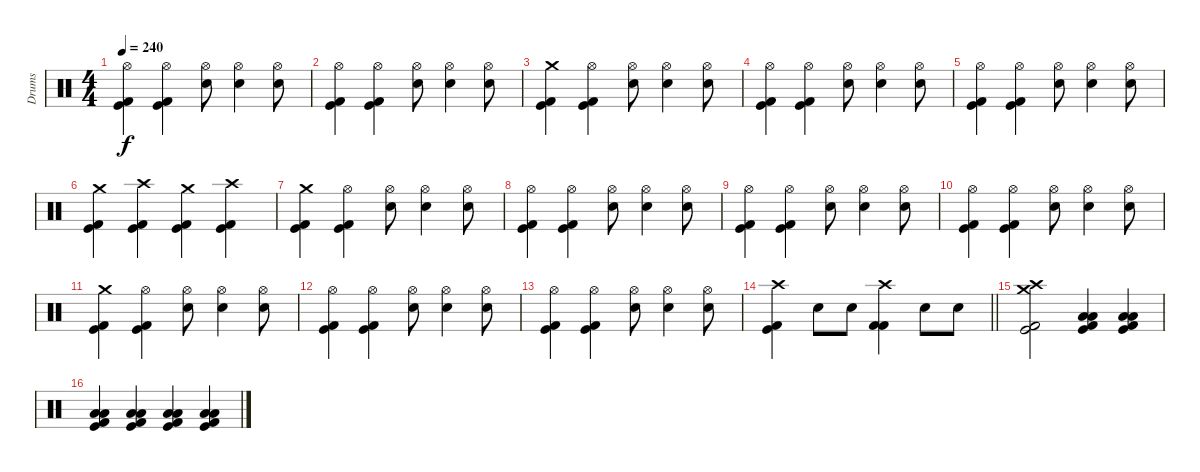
\track ("Drums" "Drums") {instrument percussion}
\staff {score}
\articulation defaults
\ts (4 4)
\tempo 240
\clef neutral
\ks c
("Hi-Hat (open)" "Kick (hit)" "Kick (hit) 2").4{dy f} ("Hi-Hat (open)" "Kick (hit)" "Kick (hit) 2").4 ("Hi-Hat (open)" "Electric Snare (hit)").8 ("Hi-Hat (open)" "Electric Snare (hit)").4 ("Hi-Hat (open)" "Electric Snare (hit)").8 |
("Hi-Hat (open)" "Kick (hit)" "Kick (hit) 2").4 ("Hi-Hat (open)" "Kick (hit)" "Kick (hit) 2").4 ("Hi-Hat (open)" "Electric Snare (hit)").8 ("Hi-Hat (open)" "Electric Snare (hit)").4 ("Hi-Hat (open)" "Electric Snare (hit)").8 |
("Crash medium (hit)" "Kick (hit)" "Kick (hit) 2").4 ("Hi-Hat (open)" "Kick (hit)" "Kick (hit) 2").4 ("Hi-Hat (open)" "Electric Snare (hit)").8 ("Hi-Hat (open)" "Electric Snare (hit)").4 ("Hi-Hat (open)" "Electric Snare (hit)").8 |
("Hi-Hat (open)" "Kick (hit)" "Kick (hit) 2").4 ("Hi-Hat (open)" "Kick (hit)" "Kick (hit) 2").4 ("Hi-Hat (open)" "Electric Snare (hit)").8 ("Hi-Hat (open)" "Electric Snare (hit)").4 ("Hi-Hat (open)" "Electric Snare (hit)").8 |
("Hi-Hat (open)" "Kick (hit)" "Kick (hit) 2").4 ("Hi-Hat (open)" "Kick (hit)" "Kick (hit) 2").4 ("Hi-Hat (open)" "Electric Snare (hit)").8 ("Hi-Hat (open)" "Electric Snare (hit)").4 ("Hi-Hat (open)" "Electric Snare (hit)").8 |
("Crash medium (hit)" "Kick (hit)" "Kick (hit) 2").4 ("Crash high (hit)" "Kick (hit)" "Kick (hit) 2").4 ("Crash medium (hit)" "Kick (hit)" "Kick (hit) 2").4 ("Crash high (hit)" "Kick (hit)" "Kick (hit) 2").4 |
("Crash medium (hit)" "Kick (hit)" "Kick (hit) 2").4 ("Hi-Hat (open)" "Kick (hit)" "Kick (hit) 2").4 ("Hi-Hat (open)" "Electric Snare (hit)").8 ("Hi-Hat (open)" "Electric Snare (hit)").4 ("Hi-Hat (open)" "Electric Snare (hit)").8 |
("Hi-Hat (open)" "Kick (hit)" "Kick (hit) 2").4 ("Hi-Hat (open)" "Kick (hit)" "Kick (hit) 2").4 ("Hi-Hat (open)" "Electric Snare (hit)").8 ("Hi-Hat (open)" "Electric Snare (hit)").4 ("Hi-Hat (open)" "Electric Snare (hit)").8 |
("Hi-Hat (open)" "Kick (hit)" "Kick (hit) 2").4 ("Hi-Hat (open)" "Kick (hit)" "Kick (hit) 2").4 ("Hi-Hat (open)" "Electric Snare (hit)").8 ("Hi-Hat (open)" "Electric Snare (hit)").4 ("Hi-Hat (open)" "Electric Snare (hit)").8 |
("Hi-Hat (open)" "Kick (hit)" "Kick (hit) 2").4 ("Hi-Hat (open)" "Kick (hit)" "Kick (hit) 2").4 ("Hi-Hat (open)" "Electric Snare (hit)").8 ("Hi-Hat (open)" "Electric Snare (hit)").4 ("Hi-Hat (open)" "Electric Snare (hit)").8 |
("Crash medium (hit)" "Kick (hit)" "Kick (hit) 2").4 ("Hi-Hat (open)" "Kick (hit)" "Kick (hit) 2").4 ("Hi-Hat (open)" "Electric Snare (hit)").8 ("Hi-Hat (open)" "Electric Snare (hit)").4 ("Hi-Hat (open)" "Electric Snare (hit)").8 |
("Hi-Hat (open)" "Kick (hit)" "Kick (hit) 2").4 ("Hi-Hat (open)" "Kick (hit)" "Kick (hit) 2").4 ("Hi-Hat (open)" "Electric Snare (hit)").8 ("Hi-Hat (open)" "Electric Snare (hit)").4 ("Hi-Hat (open)" "Electric Snare (hit)").8 |
("Hi-Hat (open)" "Kick (hit)" "Kick (hit) 2").4 ("Hi-Hat (open)" "Kick (hit)" "Kick (hit) 2").4 ("Hi-Hat (open)" "Electric Snare (hit)").8 ("Hi-Hat (open)" "Electric Snare (hit)").4 ("Hi-Hat (open)" "Electric Snare (hit)").8 |
\barLineRight lightlight
("Crash high (hit)" "Kick (hit)" "Kick (hit) 2").4 "Electric Snare (hit)".8 "Electric Snare (hit)".8 ("Crash high (hit)" "Kick (hit) 2" "Kick (hit) 2").4 "Electric Snare (hit)".8 "Electric Snare (hit)".8 |
\section ("" "")
("Crash high (hit)" "Crash medium (hit)" "Kick (hit)" "Kick (hit) 2").2 ("Low Floor Tom (hit)" "Low Tom (hit)" "Kick (hit)" "Kick (hit) 2").4 ("Low Floor Tom (hit)" "Low Tom (hit)" "Kick (hit)" "Kick (hit) 2").4 |
("Low Floor Tom (hit)" "Low Tom (hit)" "Kick (hit)" "Kick (hit) 2").4 ("Low Floor Tom (hit)" "Low Tom (hit)" "Kick (hit)" "Kick (hit) 2").4 ("Low Floor Tom (hit)" "Low Tom (hit)" "Kick (hit)" "Kick (hit) 2").4 ("Low Floor Tom (hit)" "Low Tom (hit)" "Kick (hit)" "Kick (hit) 2").4
